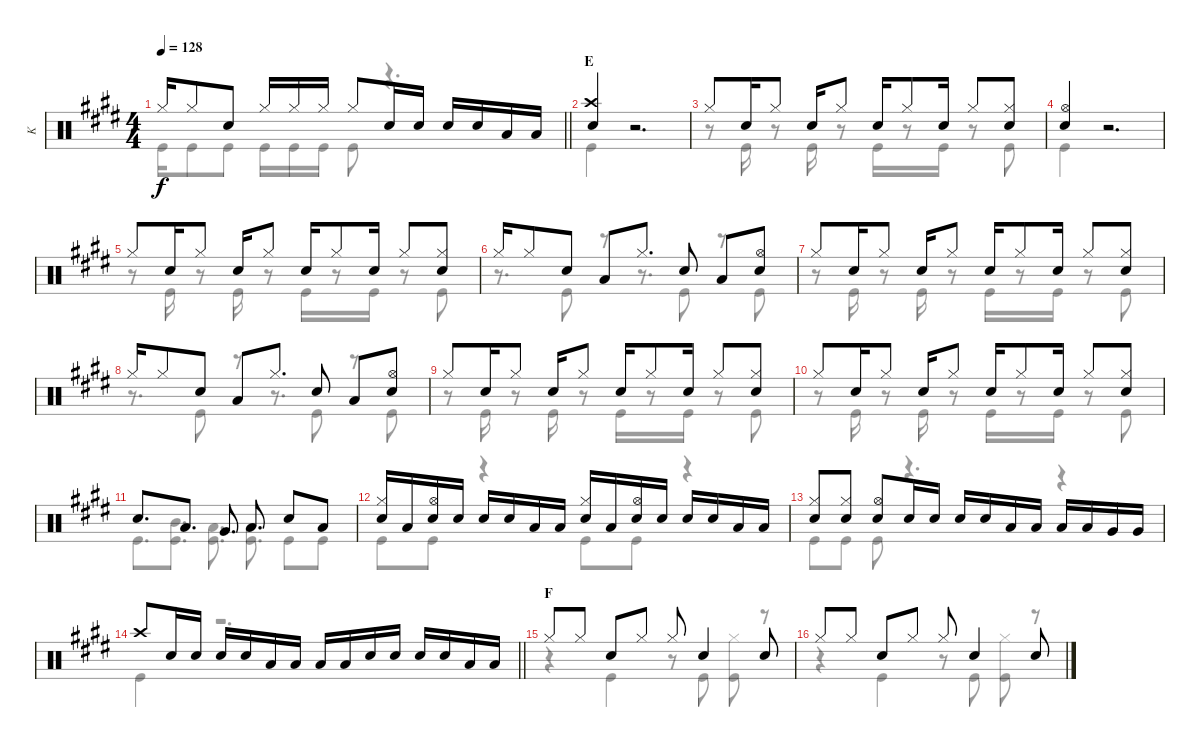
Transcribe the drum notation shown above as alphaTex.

\track ("K" "K") {instrument percussion}
\staff {score}
\articulation defaults
\voice
\ts (4 4)
\tempo 128
\clef neutral
\barLineRight lightlight
\ks e "Hi-Hat (closed)".16{dy f} "Hi-Hat (closed)".8 "Snare (hit) 2".8 "Hi-Hat (closed)".16 "Hi-Hat (closed)".16 "Hi-Hat (closed)".16 "Hi-Hat (closed)".8 "Snare (hit) 2".16 "Snare (hit) 2".16 "Snare (hit) 2".16 "Snare (hit) 2".16 "Low Tom (hit)".16 "Low Tom (hit)".16
|
\section ("" "E")
("Crash high (hit)" "Snare (hit) 2").4 r.2{d} |
"Hi-Hat (closed)".8 "Snare (hit) 2".16 "Hi-Hat (closed)".8 "Snare (hit) 2".16 "Hi-Hat (closed)".8 "Snare (hit) 2".16 "Hi-Hat (closed)".8 "Snare (hit) 2".16 "Hi-Hat (closed)".8 ("Hi-Hat (closed)" "Snare (hit) 2").8 |
("Hi-Hat (open)" "Snare (hit) 2").4 r.2{d} |
"Hi-Hat (closed)".8 "Snare (hit) 2".16 "Hi-Hat (closed)".8 "Snare (hit) 2".16 "Hi-Hat (closed)".8 "Snare (hit) 2".16 "Hi-Hat (closed)".8 "Snare (hit) 2".16 "Hi-Hat (closed)".8 ("Hi-Hat (closed)" "Snare (hit) 2").8 |
"Hi-Hat (closed)".16 "Hi-Hat (closed)".8 "Snare (hit) 2".8 "Low Tom (hit)".8 "Hi-Hat (closed)".8{d} "Snare (hit) 2".8 "Low Tom (hit)".8 ("Hi-Hat (open)" "Snare (hit) 2").8 |
"Hi-Hat (closed)".8 "Snare (hit) 2".16 "Hi-Hat (closed)".8 "Snare (hit) 2".16 "Hi-Hat (closed)".8 "Snare (hit) 2".16 "Hi-Hat (closed)".8 "Snare (hit) 2".16 "Hi-Hat (closed)".8 ("Hi-Hat (closed)" "Snare (hit) 2").8 |
"Hi-Hat (closed)".16 "Hi-Hat (closed)".8 "Snare (hit) 2".8 "Low Tom (hit)".8 "Hi-Hat (closed)".8{d} "Snare (hit) 2".8 "Low Tom (hit)".8 ("Hi-Hat (open)" "Snare (hit) 2").8 |
"Hi-Hat (closed)".8 "Snare (hit) 2".16 "Hi-Hat (closed)".8 "Snare (hit) 2".16 "Hi-Hat (closed)".8 "Snare (hit) 2".16 "Hi-Hat (closed)".8 "Snare (hit) 2".16 "Hi-Hat (closed)".8 ("Hi-Hat (closed)" "Snare (hit) 2").8 |
"Hi-Hat (closed)".8 "Snare (hit) 2".16 "Hi-Hat (closed)".8 "Snare (hit) 2".16 "Hi-Hat (closed)".8 "Snare (hit) 2".16 "Hi-Hat (closed)".8 "Snare (hit) 2".16 "Hi-Hat (closed)".8 ("Hi-Hat (closed)" "Snare (hit) 2").8 |
"Snare (hit) 2".8{d} "Low Tom (hit)".8{d} "Very Low Tom (hit)".8{d} "Low Floor Tom (hit)".8{d} "Snare (hit) 2".8 "Low Tom (hit)".8 |
("Hi-Hat (closed)" "Snare (hit) 2").16 "Low Tom (hit)".16 ("Hi-Hat (open)" "Snare (hit) 2").16 "Snare (hit) 2".16 "Snare (hit) 2".16 "Snare (hit) 2".16 "Low Tom (hit)".16 "Low Tom (hit)".16 ("Hi-Hat (closed)" "Snare (hit) 2").16 "Low Tom (hit)".16 ("Hi-Hat (open)" "Snare (hit) 2").16 "Snare (hit) 2".16 "Snare (hit) 2".16 "Snare (hit) 2".16 "Low Tom (hit)".16 "Low Tom (hit)".16 |
("Hi-Hat (closed)" "Snare (hit) 2").8 ("Hi-Hat (closed)" "Snare (hit) 2").8 ("Hi-Hat (open)" "Snare (hit) 2").8 "Snare (hit) 2".16 "Snare (hit) 2".16 "Snare (hit) 2".16 "Snare (hit) 2".16 "Low Tom (hit)".16 "Low Tom (hit)".16 "Low Tom (hit)".16 "Low Tom (hit)".16 "Very Low Tom (hit)".16 "Very Low Tom (hit)".16 |
\barLineRight lightlight "Crash high (hit)".8 "Snare (hit) 2".16 "Snare (hit) 2".16 "Snare (hit) 2".16 "Snare (hit) 2".16 "Low Tom (hit)".16 "Low Tom (hit)".16 "Low Tom (hit)".16 "Low Tom (hit)".16 "Snare (hit) 2".16 "Snare (hit) 2".16 "Snare (hit) 2".16 "Snare (hit) 2".16 "Low Tom (hit)".16 "Low Tom (hit)".16
|
\section ("" "F")
"Hi-Hat (closed)".8 "Hi-Hat (closed)".8 "Snare (hit) 2".8 "Hi-Hat (closed)".8 "Hi-Hat (closed)".8 "Snare (hit) 2".4 "Snare (hit) 2".8 |
"Hi-Hat (closed)".8 "Hi-Hat (closed)".8 "Snare (hit) 2".8 "Hi-Hat (closed)".8 "Hi-Hat (closed)".8 "Snare (hit) 2".4 "Snare (hit) 2".8
\voice
\clef neutral
\ottava regular
\simile none
\barLineRight lightlight
\ks e "Kick (hit)".16{dy f} "Kick (hit)".8 "Kick (hit)".8 "Kick (hit)".16 "Kick (hit)".16 "Kick (hit)".16 "Kick (hit)".8
r.4{d} |
"Kick (hit)".4 r.2{d} |
r.8 "Kick (hit)".16 r.8 "Kick (hit)".16 r.8 "Kick (hit)".16 r.8 "Kick (hit)".16 r.8 "Kick (hit)".8 |
"Kick (hit)".4 r.2{d} |
r.8 "Kick (hit)".16 r.8 "Kick (hit)".16 r.8 "Kick (hit)".16 r.8 "Kick (hit)".16 r.8 "Kick (hit)".8 |
r.8{d} "Kick (hit)".8 r.8 r.8{d} "Kick (hit)".8 r.8 "Kick (hit)".8 |
r.8 "Kick (hit)".16 r.8 "Kick (hit)".16 r.8 "Kick (hit)".16 r.8 "Kick (hit)".16 r.8 "Kick (hit)".8 |
r.8{d} "Kick (hit)".8 r.8 r.8{d} "Kick (hit)".8 r.8 "Kick (hit)".8 |
r.8 "Kick (hit)".16 r.8 "Kick (hit)".16 r.8 "Kick (hit)".16 r.8 "Kick (hit)".16 r.8 "Kick (hit)".8 |
r.8 "Kick (hit)".16 r.8 "Kick (hit)".16 r.8 "Kick (hit)".16 r.8 "Kick (hit)".16 r.8 "Kick (hit)".8 |
"Kick (hit)".8{d} ("Mid Tom (hit)" "Kick (hit)").8{d} ("Low Tom (hit)" "Kick (hit)").8{d} ("Low Tom (hit)" "Kick (hit)").8{d} "Kick (hit)".8 "Kick (hit)".8 |
"Kick (hit)".8 "Kick (hit)".8 r.4 "Kick (hit)".8 "Kick (hit)".8 r.4 |
"Kick (hit)".8 "Kick (hit)".8 "Kick (hit)".8 r.4{d} r.4 |
\barLineRight lightlight "Kick (hit)".4
r.2{d} |
r.4 "Kick (hit)".4 r.8 "Kick (hit)".8 ("Hi-Hat (closed)" "Kick (hit)").8 r.8 |
r.4 "Kick (hit)".4 r.8 "Kick (hit)".8 ("Hi-Hat (closed)" "Kick (hit)").8 r.8
